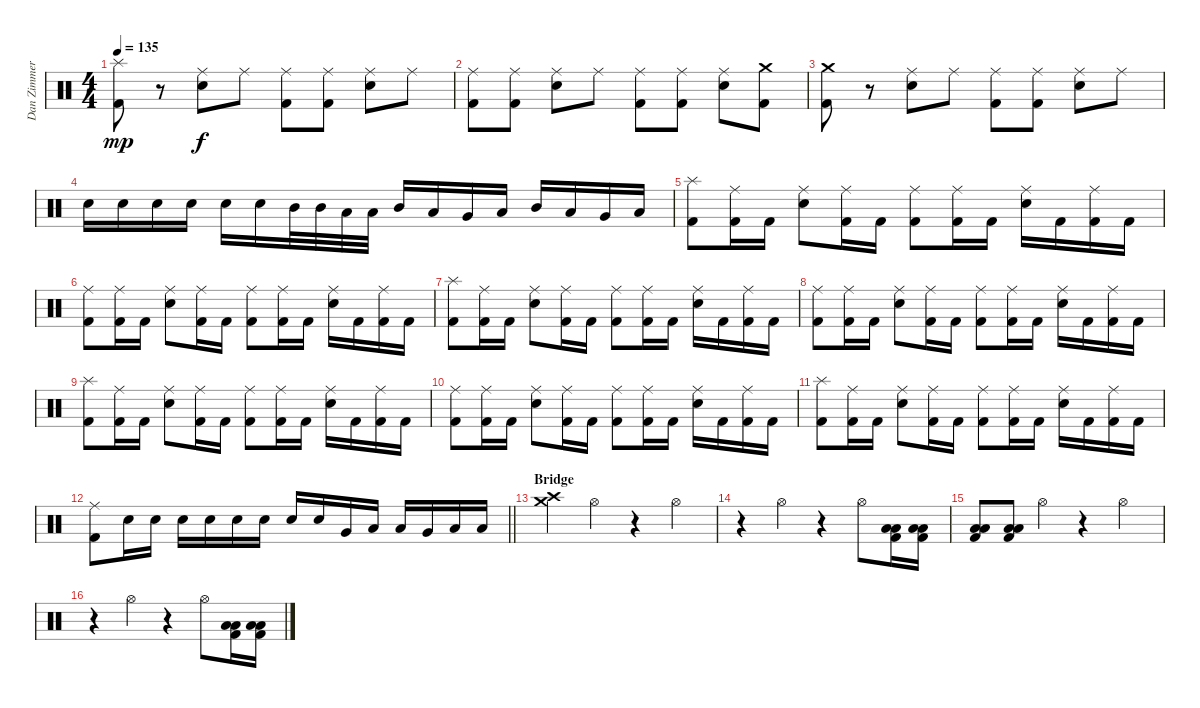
\track ("Dan Zimmermann" "Dan Zimmer") {instrument percussion}
\staff {score}
\articulation defaults
\ts (4 4)
\tempo 135
\clef neutral
\ks c
("Splash (hit)" "Kick (hit) 2").8{dy mp} r.8 ("Ride (middle)" "Electric Snare (hit)").8{dy f} "Ride (middle)".8 ("Ride (middle)" "Kick (hit) 2").8 ("Ride (middle)" "Kick (hit) 2").8 ("Ride (middle)" "Electric Snare (hit)").8 "Ride (middle)".8 |
("Ride (middle)" "Kick (hit) 2").8 ("Ride (middle)" "Kick (hit) 2").8 ("Ride (middle)" "Electric Snare (hit)").8 "Ride (middle)".8 ("Ride (middle)" "Kick (hit) 2").8 ("Ride (middle)" "Kick (hit) 2").8 ("Ride (middle)" "Electric Snare (hit)").8 ("Crash medium (hit)" "Kick (hit) 2").8 |
("Crash medium (hit)" "Kick (hit) 2").8 r.8 ("Ride (middle)" "Electric Snare (hit)").8 "Ride (middle)".8 ("Ride (middle)" "Kick (hit) 2").8 ("Ride (middle)" "Kick (hit) 2").8 ("Ride (middle)" "Electric Snare (hit)").8 "Ride (middle)".8 |
"Electric Snare (hit)".16 "Electric Snare (hit)".16 "Electric Snare (hit)".16 "Electric Snare (hit)".16 "Electric Snare (hit)".16 "Electric Snare (hit)".16 "Mid Tom (hit)".32 "Mid Tom (hit)".32 "Low Tom (hit)".32 "Low Tom (hit)".32 "Mid Tom (hit)".16 "Low Tom (hit)".16 "Very Low Tom (hit)".16 "Low Floor Tom (hit)".16 "Mid Tom (hit)".16 "Low Tom (hit)".16 "Very Low Tom (hit)".16 "Low Floor Tom (hit)".16 |
("Splash (hit)" "Kick (hit) 2").8 ("Ride (middle)" "Kick (hit) 2").16 "Kick (hit) 2".16 ("Ride (middle)" "Electric Snare (hit)").8 ("Ride (middle)" "Kick (hit) 2").16 "Kick (hit) 2".16 ("Ride (middle)" "Kick (hit) 2").8 ("Ride (middle)" "Kick (hit) 2").16 "Kick (hit) 2".16 ("Ride (middle)" "Electric Snare (hit)").16 "Kick (hit) 2".16 ("Ride (middle)" "Kick (hit) 2").16 "Kick (hit) 2".16 |
("Ride (middle)" "Kick (hit) 2").8 ("Ride (middle)" "Kick (hit) 2").16 "Kick (hit) 2".16 ("Ride (middle)" "Electric Snare (hit)").8 ("Ride (middle)" "Kick (hit) 2").16 "Kick (hit) 2".16 ("Ride (middle)" "Kick (hit) 2").8 ("Ride (middle)" "Kick (hit) 2").16 "Kick (hit) 2".16 ("Ride (middle)" "Electric Snare (hit)").16 "Kick (hit) 2".16 ("Ride (middle)" "Kick (hit) 2").16 "Kick (hit) 2".16 |
("Splash (hit)" "Kick (hit) 2").8 ("Ride (middle)" "Kick (hit) 2").16 "Kick (hit) 2".16 ("Ride (middle)" "Electric Snare (hit)").8 ("Ride (middle)" "Kick (hit) 2").16 "Kick (hit) 2".16 ("Ride (middle)" "Kick (hit) 2").8 ("Ride (middle)" "Kick (hit) 2").16 "Kick (hit) 2".16 ("Ride (middle)" "Electric Snare (hit)").16 "Kick (hit) 2".16 ("Ride (middle)" "Kick (hit) 2").16 "Kick (hit) 2".16 |
("Ride (middle)" "Kick (hit) 2").8 ("Ride (middle)" "Kick (hit) 2").16 "Kick (hit) 2".16 ("Ride (middle)" "Electric Snare (hit)").8 ("Ride (middle)" "Kick (hit) 2").16 "Kick (hit) 2".16 ("Ride (middle)" "Kick (hit) 2").8 ("Ride (middle)" "Kick (hit) 2").16 "Kick (hit) 2".16 ("Ride (middle)" "Electric Snare (hit)").16 "Kick (hit) 2".16 ("Ride (middle)" "Kick (hit) 2").16 "Kick (hit) 2".16 |
("Splash (hit)" "Kick (hit) 2").8 ("Ride (middle)" "Kick (hit) 2").16 "Kick (hit) 2".16 ("Ride (middle)" "Electric Snare (hit)").8 ("Ride (middle)" "Kick (hit) 2").16 "Kick (hit) 2".16 ("Ride (middle)" "Kick (hit) 2").8 ("Ride (middle)" "Kick (hit) 2").16 "Kick (hit) 2".16 ("Ride (middle)" "Electric Snare (hit)").16 "Kick (hit) 2".16 ("Ride (middle)" "Kick (hit) 2").16 "Kick (hit) 2".16 |
("Ride (middle)" "Kick (hit) 2").8 ("Ride (middle)" "Kick (hit) 2").16 "Kick (hit) 2".16 ("Ride (middle)" "Electric Snare (hit)").8 ("Ride (middle)" "Kick (hit) 2").16 "Kick (hit) 2".16 ("Ride (middle)" "Kick (hit) 2").8 ("Ride (middle)" "Kick (hit) 2").16 "Kick (hit) 2".16 ("Ride (middle)" "Electric Snare (hit)").16 "Kick (hit) 2".16 ("Ride (middle)" "Kick (hit) 2").16 "Kick (hit) 2".16 |
("Splash (hit)" "Kick (hit) 2").8 ("Ride (middle)" "Kick (hit) 2").16 "Kick (hit) 2".16 ("Ride (middle)" "Electric Snare (hit)").8 ("Ride (middle)" "Kick (hit) 2").16 "Kick (hit) 2".16 ("Ride (middle)" "Kick (hit) 2").8 ("Ride (middle)" "Kick (hit) 2").16 "Kick (hit) 2".16 ("Ride (middle)" "Electric Snare (hit)").16 "Kick (hit) 2".16 ("Ride (middle)" "Kick (hit) 2").16 "Kick (hit) 2".16 |
\barLineRight lightlight
("Ride (middle)" "Kick (hit) 2").8 "Electric Snare (hit)".16 "Electric Snare (hit)".16 "Electric Snare (hit)".16 "Electric Snare (hit)".16 "Electric Snare (hit)".16 "Electric Snare (hit)".16 "Electric Snare (hit)".16 "Electric Snare (hit)".16 "Very Low Tom (hit)".16 "Low Floor Tom (hit)".16 "Low Tom (hit)".16 "Very Low Tom (hit)".16 "Low Floor Tom (hit)".16 "Low Floor Tom (hit)".16 |
\section ("" "Bridge")
("Crash medium (hit)" "Crash high (hit)").4 "Hi-Hat (open)".4 r.4 "Hi-Hat (open)".4 |
r.4 "Hi-Hat (open)".4 r.4 "Hi-Hat (open)".8 ("Low Floor Tom (hit)" "Low Floor Tom (hit)" "Kick (hit) 2").16 ("Low Floor Tom (hit)" "Low Floor Tom (hit)" "Kick (hit) 2").16 |
("Low Floor Tom (hit)" "Low Floor Tom (hit)" "Kick (hit) 2").8 ("Low Floor Tom (hit)" "Low Floor Tom (hit)" "Kick (hit) 2").8 "Hi-Hat (open)".4 r.4 "Hi-Hat (open)".4 |
r.4 "Hi-Hat (open)".4 r.4 "Hi-Hat (open)".8 ("Low Floor Tom (hit)" "Low Floor Tom (hit)" "Kick (hit) 2").16 ("Low Floor Tom (hit)" "Low Floor Tom (hit)" "Kick (hit) 2").16
